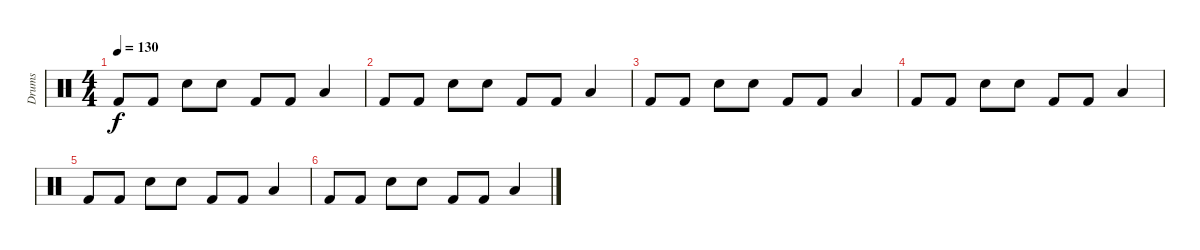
\track ("Drums" "Drums") {instrument percussion}
\staff {score}
\articulation defaults
\ts (4 4)
\tempo 130
\clef neutral
\ks c "Kick (hit) 2".8{dy f} "Kick (hit) 2".8 "Electric Snare (hit)".8 "Electric Snare (hit)".8 "Kick (hit) 2".8 "Kick (hit) 2".8 "Low Floor Tom (hit)".4
|
"Kick (hit) 2".8 "Kick (hit) 2".8 "Electric Snare (hit)".8 "Electric Snare (hit)".8 "Kick (hit) 2".8 "Kick (hit) 2".8 "Low Floor Tom (hit)".4 |
"Kick (hit) 2".8 "Kick (hit) 2".8 "Electric Snare (hit)".8 "Electric Snare (hit)".8 "Kick (hit) 2".8 "Kick (hit) 2".8 "Low Floor Tom (hit)".4 |
"Kick (hit) 2".8 "Kick (hit) 2".8 "Electric Snare (hit)".8 "Electric Snare (hit)".8 "Kick (hit) 2".8 "Kick (hit) 2".8 "Low Floor Tom (hit)".4 |
"Kick (hit) 2".8 "Kick (hit) 2".8 "Electric Snare (hit)".8 "Electric Snare (hit)".8 "Kick (hit) 2".8 "Kick (hit) 2".8 "Low Floor Tom (hit)".4 |
"Kick (hit) 2".8 "Kick (hit) 2".8 "Electric Snare (hit)".8 "Electric Snare (hit)".8 "Kick (hit) 2".8 "Kick (hit) 2".8 "Low Floor Tom (hit)".4
